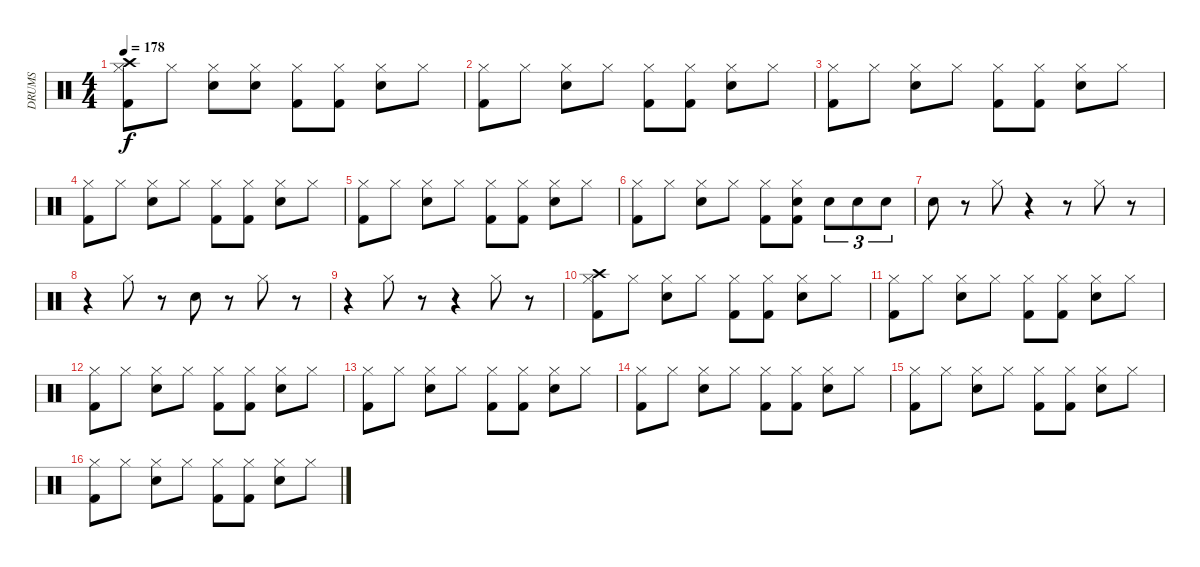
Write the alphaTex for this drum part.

\track ("DRUMS" "DRUMS") {instrument percussion}
\staff {score}
\articulation defaults
\ts (4 4)
\tempo 178
\clef neutral
\ks c
("Hi-Hat (closed)" "Crash high (hit)" "Kick (hit) 2").8{dy f} "Hi-Hat (closed)".8 ("Hi-Hat (closed)" "Snare (hit) 2").8 ("Hi-Hat (closed)" "Snare (hit) 2").8 ("Hi-Hat (closed)" "Kick (hit) 2").8 ("Hi-Hat (closed)" "Kick (hit) 2").8 ("Hi-Hat (closed)" "Snare (hit) 2").8 "Hi-Hat (closed)".8 |
("Hi-Hat (closed)" "Kick (hit) 2").8 "Hi-Hat (closed)".8 ("Hi-Hat (closed)" "Snare (hit) 2").8 "Hi-Hat (closed)".8 ("Hi-Hat (closed)" "Kick (hit) 2").8 ("Hi-Hat (closed)" "Kick (hit) 2").8 ("Hi-Hat (closed)" "Snare (hit) 2").8 "Hi-Hat (closed)".8 |
("Hi-Hat (closed)" "Kick (hit) 2").8 "Hi-Hat (closed)".8 ("Hi-Hat (closed)" "Snare (hit) 2").8 "Hi-Hat (closed)".8 ("Hi-Hat (closed)" "Kick (hit) 2").8 ("Hi-Hat (closed)" "Kick (hit) 2").8 ("Hi-Hat (closed)" "Snare (hit) 2").8 "Hi-Hat (closed)".8 |
("Hi-Hat (closed)" "Kick (hit) 2").8 "Hi-Hat (closed)".8 ("Hi-Hat (closed)" "Snare (hit) 2").8 "Hi-Hat (closed)".8 ("Hi-Hat (closed)" "Kick (hit) 2").8 ("Hi-Hat (closed)" "Kick (hit) 2").8 ("Hi-Hat (closed)" "Snare (hit) 2").8 "Hi-Hat (closed)".8 |
("Hi-Hat (closed)" "Kick (hit) 2").8 "Hi-Hat (closed)".8 ("Hi-Hat (closed)" "Snare (hit) 2").8 "Hi-Hat (closed)".8 ("Hi-Hat (closed)" "Kick (hit) 2").8 ("Hi-Hat (closed)" "Kick (hit) 2").8 ("Hi-Hat (closed)" "Snare (hit) 2").8 "Hi-Hat (closed)".8 |
("Hi-Hat (closed)" "Kick (hit) 2").8 "Hi-Hat (closed)".8 ("Hi-Hat (closed)" "Snare (hit) 2").8 "Hi-Hat (closed)".8 ("Hi-Hat (closed)" "Kick (hit) 2").8 ("Hi-Hat (closed)" "Snare (hit) 2" "Kick (hit) 2").8 "Snare (hit) 2".8{tu (3 2)} "Snare (hit) 2".8{tu (3 2)} "Snare (hit) 2".8{tu (3 2)} |
"Snare (hit) 2".8 r.8 "Hi-Hat (closed)".8 r.4 r.8 "Hi-Hat (closed)".8 r.8 |
r.4 "Hi-Hat (closed)".8 r.8 "Snare (hit) 2".8 r.8 "Hi-Hat (closed)".8 r.8 |
r.4 "Hi-Hat (closed)".8 r.8 r.4 "Hi-Hat (closed)".8 r.8 |
("Hi-Hat (closed)" "Crash high (hit)" "Kick (hit) 2").8 "Hi-Hat (closed)".8 ("Hi-Hat (closed)" "Snare (hit) 2").8 "Hi-Hat (closed)".8 ("Hi-Hat (closed)" "Kick (hit) 2").8 ("Hi-Hat (closed)" "Kick (hit) 2").8 ("Hi-Hat (closed)" "Snare (hit) 2").8 "Hi-Hat (closed)".8 |
("Hi-Hat (closed)" "Kick (hit) 2").8 "Hi-Hat (closed)".8 ("Hi-Hat (closed)" "Snare (hit) 2").8 "Hi-Hat (closed)".8 ("Hi-Hat (closed)" "Kick (hit) 2").8 ("Hi-Hat (closed)" "Kick (hit) 2").8 ("Hi-Hat (closed)" "Snare (hit) 2").8 "Hi-Hat (closed)".8 |
("Hi-Hat (closed)" "Kick (hit) 2").8 "Hi-Hat (closed)".8 ("Hi-Hat (closed)" "Snare (hit) 2").8 "Hi-Hat (closed)".8 ("Hi-Hat (closed)" "Kick (hit) 2").8 ("Hi-Hat (closed)" "Kick (hit) 2").8 ("Hi-Hat (closed)" "Snare (hit) 2").8 "Hi-Hat (closed)".8 |
("Hi-Hat (closed)" "Kick (hit) 2").8 "Hi-Hat (closed)".8 ("Hi-Hat (closed)" "Snare (hit) 2").8 "Hi-Hat (closed)".8 ("Hi-Hat (closed)" "Kick (hit) 2").8 ("Hi-Hat (closed)" "Kick (hit) 2").8 ("Hi-Hat (closed)" "Snare (hit) 2").8 "Hi-Hat (closed)".8 |
("Hi-Hat (closed)" "Kick (hit) 2").8 "Hi-Hat (closed)".8 ("Hi-Hat (closed)" "Snare (hit) 2").8 "Hi-Hat (closed)".8 ("Hi-Hat (closed)" "Kick (hit) 2").8 ("Hi-Hat (closed)" "Kick (hit) 2").8 ("Hi-Hat (closed)" "Snare (hit) 2").8 "Hi-Hat (closed)".8 |
("Hi-Hat (closed)" "Kick (hit) 2").8 "Hi-Hat (closed)".8 ("Hi-Hat (closed)" "Snare (hit) 2").8 "Hi-Hat (closed)".8 ("Hi-Hat (closed)" "Kick (hit) 2").8 ("Hi-Hat (closed)" "Kick (hit) 2").8 ("Hi-Hat (closed)" "Snare (hit) 2").8 "Hi-Hat (closed)".8 |
("Hi-Hat (closed)" "Kick (hit) 2").8 "Hi-Hat (closed)".8 ("Hi-Hat (closed)" "Snare (hit) 2").8 "Hi-Hat (closed)".8 ("Hi-Hat (closed)" "Kick (hit) 2").8 ("Hi-Hat (closed)" "Kick (hit) 2").8 ("Hi-Hat (closed)" "Snare (hit) 2").8 "Hi-Hat (closed)".8
